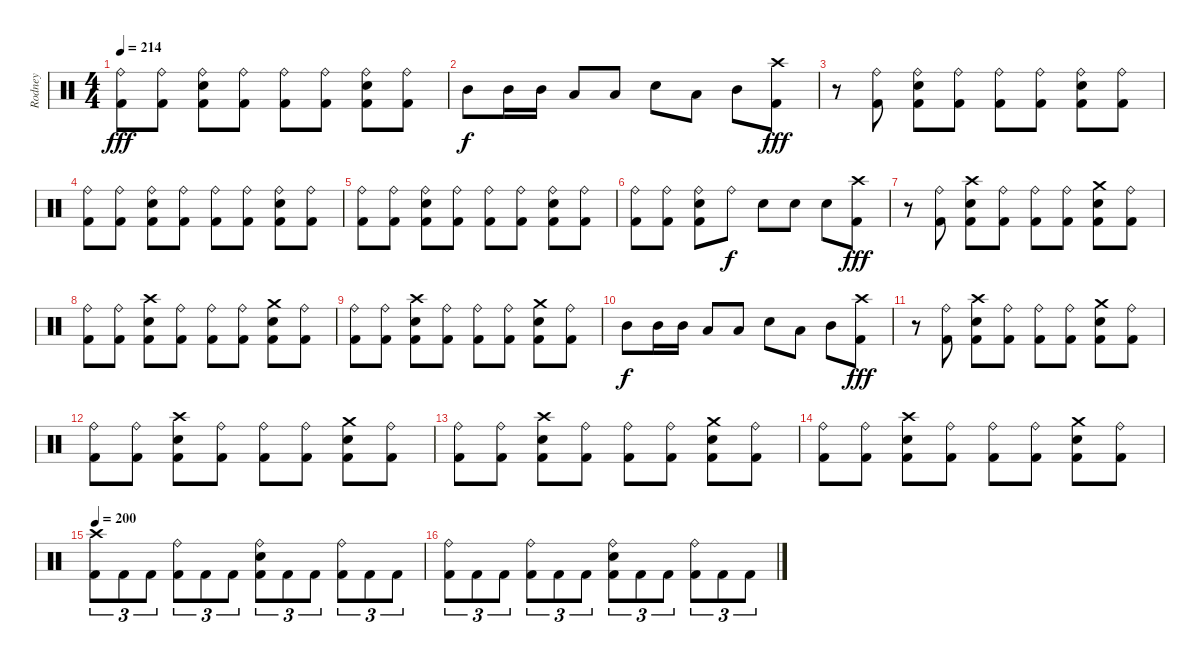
\track ("Rodney" "Rodney") {instrument percussion}
\staff {score}
\articulation defaults
\ts (4 4)
\tempo 214
\clef neutral
\ks c
("Ride (bell)" "Kick (hit) 2").8{dy fff} ("Ride (bell)" "Kick (hit) 2").8 ("Ride (bell)" "Snare (hit) 2" "Kick (hit) 2").8 ("Ride (bell)" "Kick (hit) 2").8 ("Ride (bell)" "Kick (hit) 2").8 ("Ride (bell)" "Kick (hit) 2").8 ("Ride (bell)" "Snare (hit) 2" "Kick (hit) 2").8 ("Ride (bell)" "Kick (hit) 2").8 |
"Mid Tom (hit)".8{dy f} "Mid Tom (hit)".16 "Mid Tom (hit)".16 "Low Tom (hit)".8 "Low Tom (hit)".8 "Snare (hit) 2".8 "Low Tom (hit)".8 "Mid Tom (hit)".8 ("Crash high (hit)" "Kick (hit) 2").8{dy fff} |
r.8 ("Ride (bell)" "Kick (hit) 2").8 ("Ride (bell)" "Snare (hit) 2" "Kick (hit) 2").8 ("Ride (bell)" "Kick (hit) 2").8 ("Ride (bell)" "Kick (hit) 2").8 ("Ride (bell)" "Kick (hit) 2").8 ("Ride (bell)" "Snare (hit) 2" "Kick (hit) 2").8 ("Ride (bell)" "Kick (hit) 2").8 |
("Ride (bell)" "Kick (hit) 2").8 ("Ride (bell)" "Kick (hit) 2").8 ("Ride (bell)" "Snare (hit) 2" "Kick (hit) 2").8 ("Ride (bell)" "Kick (hit) 2").8 ("Ride (bell)" "Kick (hit) 2").8 ("Ride (bell)" "Kick (hit) 2").8 ("Ride (bell)" "Snare (hit) 2" "Kick (hit) 2").8 ("Ride (bell)" "Kick (hit) 2").8 |
("Ride (bell)" "Kick (hit) 2").8 ("Ride (bell)" "Kick (hit) 2").8 ("Ride (bell)" "Snare (hit) 2" "Kick (hit) 2").8 ("Ride (bell)" "Kick (hit) 2").8 ("Ride (bell)" "Kick (hit) 2").8 ("Ride (bell)" "Kick (hit) 2").8 ("Ride (bell)" "Snare (hit) 2" "Kick (hit) 2").8 ("Ride (bell)" "Kick (hit) 2").8 |
("Ride (bell)" "Kick (hit) 2").8 ("Ride (bell)" "Kick (hit) 2").8 ("Ride (bell)" "Snare (hit) 2" "Kick (hit) 2").8 "Ride (bell)".8{dy f} "Snare (hit) 2".8 "Snare (hit) 2".8 "Snare (hit) 2".8 ("Crash high (hit)" "Kick (hit) 2").8{dy fff} |
r.8 ("Ride (bell)" "Kick (hit) 2").8 ("Crash high (hit)" "Snare (hit) 2" "Kick (hit) 2").8 ("Ride (bell)" "Kick (hit) 2").8 ("Ride (bell)" "Kick (hit) 2").8 ("Ride (bell)" "Kick (hit) 2").8 ("Crash medium (hit)" "Snare (hit) 2" "Kick (hit) 2").8 ("Ride (bell)" "Kick (hit) 2").8 |
("Ride (bell)" "Kick (hit) 2").8 ("Ride (bell)" "Kick (hit) 2").8 ("Crash high (hit)" "Snare (hit) 2" "Kick (hit) 2").8 ("Ride (bell)" "Kick (hit) 2").8 ("Ride (bell)" "Kick (hit) 2").8 ("Ride (bell)" "Kick (hit) 2").8 ("Crash medium (hit)" "Snare (hit) 2" "Kick (hit) 2").8 ("Ride (bell)" "Kick (hit) 2").8 |
("Ride (bell)" "Kick (hit) 2").8 ("Ride (bell)" "Kick (hit) 2").8 ("Crash high (hit)" "Snare (hit) 2" "Kick (hit) 2").8 ("Ride (bell)" "Kick (hit) 2").8 ("Ride (bell)" "Kick (hit) 2").8 ("Ride (bell)" "Kick (hit) 2").8 ("Crash medium (hit)" "Snare (hit) 2" "Kick (hit) 2").8 ("Ride (bell)" "Kick (hit) 2").8 |
"Mid Tom (hit)".8{dy f} "Mid Tom (hit)".16 "Mid Tom (hit)".16 "Low Tom (hit)".8 "Low Tom (hit)".8 "Snare (hit) 2".8 "Low Tom (hit)".8 "Mid Tom (hit)".8 ("Crash high (hit)" "Kick (hit) 2").8{dy fff} |
r.8 ("Ride (bell)" "Kick (hit) 2").8 ("Crash high (hit)" "Snare (hit) 2" "Kick (hit) 2").8 ("Ride (bell)" "Kick (hit) 2").8 ("Ride (bell)" "Kick (hit) 2").8 ("Ride (bell)" "Kick (hit) 2").8 ("Crash medium (hit)" "Snare (hit) 2" "Kick (hit) 2").8 ("Ride (bell)" "Kick (hit) 2").8 |
("Ride (bell)" "Kick (hit) 2").8 ("Ride (bell)" "Kick (hit) 2").8 ("Crash high (hit)" "Snare (hit) 2" "Kick (hit) 2").8 ("Ride (bell)" "Kick (hit) 2").8 ("Ride (bell)" "Kick (hit) 2").8 ("Ride (bell)" "Kick (hit) 2").8 ("Crash medium (hit)" "Snare (hit) 2" "Kick (hit) 2").8 ("Ride (bell)" "Kick (hit) 2").8 |
("Ride (bell)" "Kick (hit) 2").8 ("Ride (bell)" "Kick (hit) 2").8 ("Crash high (hit)" "Snare (hit) 2" "Kick (hit) 2").8 ("Ride (bell)" "Kick (hit) 2").8 ("Ride (bell)" "Kick (hit) 2").8 ("Ride (bell)" "Kick (hit) 2").8 ("Crash medium (hit)" "Snare (hit) 2" "Kick (hit) 2").8 ("Ride (bell)" "Kick (hit) 2").8 |
("Ride (bell)" "Kick (hit) 2").8 ("Ride (bell)" "Kick (hit) 2").8 ("Crash high (hit)" "Snare (hit) 2" "Kick (hit) 2").8 ("Ride (bell)" "Kick (hit) 2").8 ("Ride (bell)" "Kick (hit) 2").8 ("Ride (bell)" "Kick (hit) 2").8 ("Crash medium (hit)" "Snare (hit) 2" "Kick (hit) 2").8 ("Ride (bell)" "Kick (hit) 2").8 |
\tempo 200
("Crash high (hit)" "Kick (hit) 2").8{tu (3 2)} "Kick (hit) 2".8{tu (3 2)} "Kick (hit) 2".8{tu (3 2)} ("Ride (bell)" "Kick (hit) 2").8{tu (3 2)} "Kick (hit) 2".8{tu (3 2)} "Kick (hit) 2".8{tu (3 2)} ("Ride (bell)" "Snare (hit) 2" "Kick (hit) 2").8{tu (3 2)} "Kick (hit) 2".8{tu (3 2)} "Kick (hit) 2".8{tu (3 2)} ("Ride (bell)" "Kick (hit) 2").8{tu (3 2)} "Kick (hit) 2".8{tu (3 2)} "Kick (hit) 2".8{tu (3 2)} |
("Ride (bell)" "Kick (hit) 2").8{tu (3 2)} "Kick (hit) 2".8{tu (3 2)} "Kick (hit) 2".8{tu (3 2)} ("Ride (bell)" "Kick (hit) 2").8{tu (3 2)} "Kick (hit) 2".8{tu (3 2)} "Kick (hit) 2".8{tu (3 2)} ("Ride (bell)" "Snare (hit) 2" "Kick (hit) 2").8{tu (3 2)} "Kick (hit) 2".8{tu (3 2)} "Kick (hit) 2".8{tu (3 2)} ("Ride (bell)" "Kick (hit) 2").8{tu (3 2)} "Kick (hit) 2".8{tu (3 2)} "Kick (hit) 2".8{tu (3 2)}
